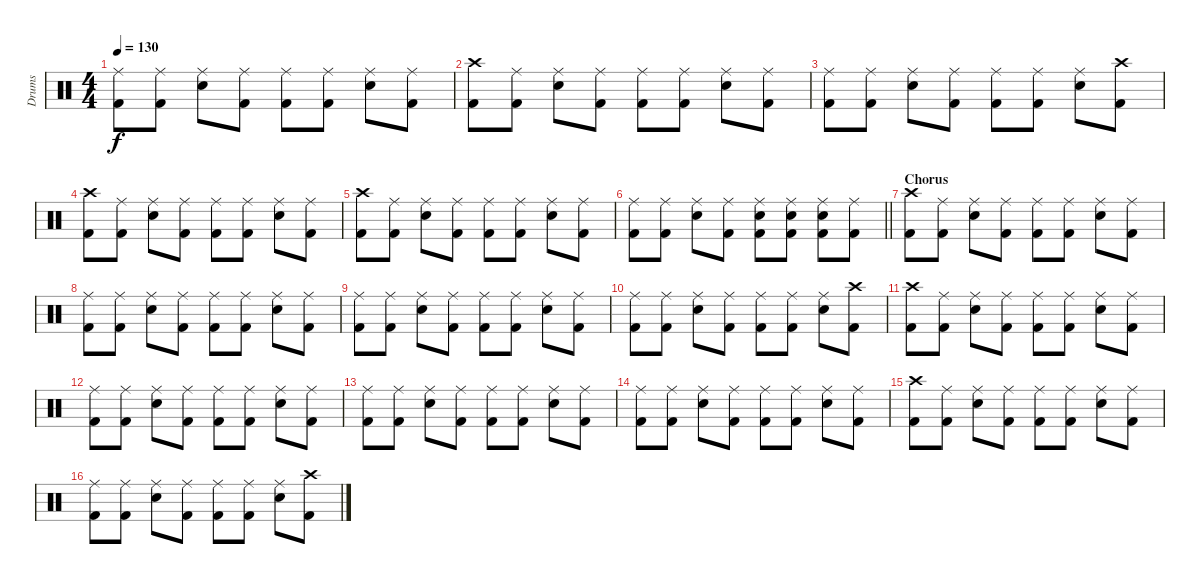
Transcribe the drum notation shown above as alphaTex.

\track ("Drums" "Drums") {instrument percussion}
\staff {score}
\articulation defaults
\ts (4 4)
\tempo 130
\clef neutral
\ks c
("Ride (middle)" "Kick (hit) 2").8{dy f} ("Ride (middle)" "Kick (hit) 2").8 ("Ride (middle)" "Snare (hit) 2").8 ("Ride (middle)" "Kick (hit) 2").8 ("Ride (middle)" "Kick (hit) 2").8 ("Ride (middle)" "Kick (hit) 2").8 ("Ride (middle)" "Snare (hit) 2").8 ("Ride (middle)" "Kick (hit) 2").8 |
("Crash high (hit)" "Kick (hit) 2").8 ("Ride (middle)" "Kick (hit) 2").8 ("Ride (middle)" "Snare (hit) 2").8 ("Ride (middle)" "Kick (hit) 2").8 ("Ride (middle)" "Kick (hit) 2").8 ("Ride (middle)" "Kick (hit) 2").8 ("Ride (middle)" "Snare (hit) 2").8 ("Ride (middle)" "Kick (hit) 2").8 |
("Ride (middle)" "Kick (hit) 2").8 ("Ride (middle)" "Kick (hit) 2").8 ("Ride (middle)" "Snare (hit) 2").8 ("Ride (middle)" "Kick (hit) 2").8 ("Ride (middle)" "Kick (hit) 2").8 ("Ride (middle)" "Kick (hit) 2").8 ("Ride (middle)" "Snare (hit) 2").8 ("Crash high (hit)" "Kick (hit) 2").8 |
("Crash high (hit)" "Kick (hit) 2").8 ("Ride (middle)" "Kick (hit) 2").8 ("Ride (middle)" "Snare (hit) 2").8 ("Ride (middle)" "Kick (hit) 2").8 ("Ride (middle)" "Kick (hit) 2").8 ("Ride (middle)" "Kick (hit) 2").8 ("Ride (middle)" "Snare (hit) 2").8 ("Ride (middle)" "Kick (hit) 2").8 |
("Crash high (hit)" "Kick (hit) 2").8 ("Ride (middle)" "Kick (hit) 2").8 ("Ride (middle)" "Snare (hit) 2").8 ("Ride (middle)" "Kick (hit) 2").8 ("Ride (middle)" "Kick (hit) 2").8 ("Ride (middle)" "Kick (hit) 2").8 ("Ride (middle)" "Snare (hit) 2").8 ("Ride (middle)" "Kick (hit) 2").8 |
\barLineRight lightlight
("Ride (middle)" "Kick (hit) 2").8 ("Ride (middle)" "Kick (hit) 2").8 ("Ride (middle)" "Snare (hit) 2").8 ("Ride (middle)" "Kick (hit) 2").8 ("Ride (middle)" "Snare (hit) 2" "Kick (hit) 2").8 ("Ride (middle)" "Snare (hit) 2" "Kick (hit) 2").8 ("Ride (middle)" "Snare (hit) 2" "Kick (hit) 2").8 ("Ride (middle)" "Kick (hit) 2").8 |
\section ("" "Chorus")
("Crash high (hit)" "Kick (hit) 2").8 ("Ride (middle)" "Kick (hit) 2").8 ("Ride (middle)" "Snare (hit) 2").8 ("Ride (middle)" "Kick (hit) 2").8 ("Ride (middle)" "Kick (hit) 2").8 ("Ride (middle)" "Kick (hit) 2").8 ("Ride (middle)" "Snare (hit) 2").8 ("Ride (middle)" "Kick (hit) 2").8 |
("Ride (middle)" "Kick (hit) 2").8 ("Ride (middle)" "Kick (hit) 2").8 ("Ride (middle)" "Snare (hit) 2").8 ("Ride (middle)" "Kick (hit) 2").8 ("Ride (middle)" "Kick (hit) 2").8 ("Ride (middle)" "Kick (hit) 2").8 ("Ride (middle)" "Snare (hit) 2").8 ("Ride (middle)" "Kick (hit) 2").8 |
("Ride (middle)" "Kick (hit) 2").8 ("Ride (middle)" "Kick (hit) 2").8 ("Ride (middle)" "Snare (hit) 2").8 ("Ride (middle)" "Kick (hit) 2").8 ("Ride (middle)" "Kick (hit) 2").8 ("Ride (middle)" "Kick (hit) 2").8 ("Ride (middle)" "Snare (hit) 2").8 ("Ride (middle)" "Kick (hit) 2").8 |
("Ride (middle)" "Kick (hit) 2").8 ("Ride (middle)" "Kick (hit) 2").8 ("Ride (middle)" "Snare (hit) 2").8 ("Ride (middle)" "Kick (hit) 2").8 ("Ride (middle)" "Kick (hit) 2").8 ("Ride (middle)" "Kick (hit) 2").8 ("Ride (middle)" "Snare (hit) 2").8 ("Crash high (hit)" "Kick (hit) 2").8 |
("Crash high (hit)" "Kick (hit) 2").8 ("Ride (middle)" "Kick (hit) 2").8 ("Ride (middle)" "Snare (hit) 2").8 ("Ride (middle)" "Kick (hit) 2").8 ("Ride (middle)" "Kick (hit) 2").8 ("Ride (middle)" "Kick (hit) 2").8 ("Ride (middle)" "Snare (hit) 2").8 ("Ride (middle)" "Kick (hit) 2").8 |
("Ride (middle)" "Kick (hit) 2").8 ("Ride (middle)" "Kick (hit) 2").8 ("Ride (middle)" "Snare (hit) 2").8 ("Ride (middle)" "Kick (hit) 2").8 ("Ride (middle)" "Kick (hit) 2").8 ("Ride (middle)" "Kick (hit) 2").8 ("Ride (middle)" "Snare (hit) 2").8 ("Ride (middle)" "Kick (hit) 2").8 |
("Ride (middle)" "Kick (hit) 2").8 ("Ride (middle)" "Kick (hit) 2").8 ("Ride (middle)" "Snare (hit) 2").8 ("Ride (middle)" "Kick (hit) 2").8 ("Ride (middle)" "Kick (hit) 2").8 ("Ride (middle)" "Kick (hit) 2").8 ("Ride (middle)" "Snare (hit) 2").8 ("Ride (middle)" "Kick (hit) 2").8 |
("Ride (middle)" "Kick (hit) 2").8 ("Ride (middle)" "Kick (hit) 2").8 ("Ride (middle)" "Snare (hit) 2").8 ("Ride (middle)" "Kick (hit) 2").8 ("Ride (middle)" "Kick (hit) 2").8 ("Ride (middle)" "Kick (hit) 2").8 ("Ride (middle)" "Snare (hit) 2").8 ("Ride (middle)" "Kick (hit) 2").8 |
("Crash high (hit)" "Kick (hit) 2").8 ("Ride (middle)" "Kick (hit) 2").8 ("Ride (middle)" "Snare (hit) 2").8 ("Ride (middle)" "Kick (hit) 2").8 ("Ride (middle)" "Kick (hit) 2").8 ("Ride (middle)" "Kick (hit) 2").8 ("Ride (middle)" "Snare (hit) 2").8 ("Ride (middle)" "Kick (hit) 2").8 |
("Ride (middle)" "Kick (hit) 2").8 ("Ride (middle)" "Kick (hit) 2").8 ("Ride (middle)" "Snare (hit) 2").8 ("Ride (middle)" "Kick (hit) 2").8 ("Ride (middle)" "Kick (hit) 2").8 ("Ride (middle)" "Kick (hit) 2").8 ("Ride (middle)" "Snare (hit) 2").8 ("Crash high (hit)" "Kick (hit) 2").8
